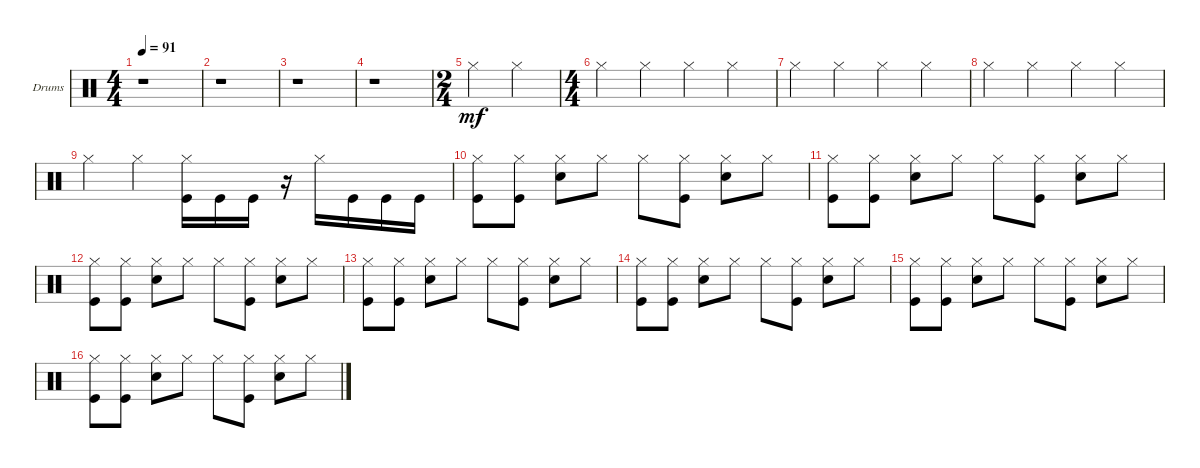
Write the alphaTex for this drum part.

\defaultSystemsLayout 4
\bracketExtendMode groupsimilarinstruments
\firstSystemTrackNameOrientation horizontal
\otherSystemsTrackNameOrientation horizontal
\track ("Drumkit" "Drums") {instrument percussion}
\staff {score}
\articulation defaults
\ts (4 4)
\tempo 91
\clef neutral
\scale
0.474178
\ks c
r.1{dy mf} |
\scale
0.262911 r.1 |
\scale
0.262911 r.1 |
\scale
0.217054 r.1 |
\ts (2 4)
\scale
0.391473 "Hi-Hat (closed)".4 "Hi-Hat (closed)".4 |
\ts (4 4)
\scale
0.391473 "Hi-Hat (closed)".4 "Hi-Hat (closed)".4 "Hi-Hat (closed)".4 "Hi-Hat (closed)".4 |
\scale
0.333333 "Hi-Hat (closed)".4 "Hi-Hat (closed)".4 "Hi-Hat (closed)".4 "Hi-Hat (closed)".4 |
\scale
0.333333 "Hi-Hat (closed)".4 "Hi-Hat (closed)".4 "Hi-Hat (closed)".4 "Hi-Hat (closed)".4 |
\scale
0.333333 "Hi-Hat (closed)".4 "Hi-Hat (closed)".4 ("Hi-Hat (closed)" "Kick (hit)").16 "Kick (hit)".16 "Kick (hit)".16 r.16 "Hi-Hat (closed)".16 "Kick (hit)".16 "Kick (hit)".16 "Kick (hit)".16 |
("Kick (hit)" "Hi-Hat (closed)").8 ("Kick (hit)" "Hi-Hat (closed)").8 ("Hi-Hat (closed)" "Snare (hit) 2").8 "Hi-Hat (closed)".8 "Hi-Hat (closed)".8 ("Kick (hit)" "Hi-Hat (closed)").8 ("Hi-Hat (closed)" "Snare (hit) 2").8 "Hi-Hat (closed)".8 |
("Kick (hit)" "Hi-Hat (closed)").8 ("Kick (hit)" "Hi-Hat (closed)").8 ("Hi-Hat (closed)" "Snare (hit) 2").8 "Hi-Hat (closed)".8 "Hi-Hat (closed)".8 ("Kick (hit)" "Hi-Hat (closed)").8 ("Hi-Hat (closed)" "Snare (hit) 2").8 "Hi-Hat (closed)".8 |
("Kick (hit)" "Hi-Hat (closed)").8 ("Kick (hit)" "Hi-Hat (closed)").8 ("Hi-Hat (closed)" "Snare (hit) 2").8 "Hi-Hat (closed)".8 "Hi-Hat (closed)".8 ("Kick (hit)" "Hi-Hat (closed)").8 ("Hi-Hat (closed)" "Snare (hit) 2").8 "Hi-Hat (closed)".8 |
("Kick (hit)" "Hi-Hat (closed)").8 ("Kick (hit)" "Hi-Hat (closed)").8 ("Hi-Hat (closed)" "Snare (hit) 2").8 "Hi-Hat (closed)".8 "Hi-Hat (closed)".8 ("Kick (hit)" "Hi-Hat (closed)").8 ("Hi-Hat (closed)" "Snare (hit) 2").8 "Hi-Hat (closed)".8 |
("Kick (hit)" "Hi-Hat (closed)").8 ("Kick (hit)" "Hi-Hat (closed)").8 ("Hi-Hat (closed)" "Snare (hit) 2").8 "Hi-Hat (closed)".8 "Hi-Hat (closed)".8 ("Kick (hit)" "Hi-Hat (closed)").8 ("Hi-Hat (closed)" "Snare (hit) 2").8 "Hi-Hat (closed)".8 |
("Kick (hit)" "Hi-Hat (closed)").8 ("Kick (hit)" "Hi-Hat (closed)").8 ("Hi-Hat (closed)" "Snare (hit) 2").8 "Hi-Hat (closed)".8 "Hi-Hat (closed)".8 ("Kick (hit)" "Hi-Hat (closed)").8 ("Hi-Hat (closed)" "Snare (hit) 2").8 "Hi-Hat (closed)".8 |
("Kick (hit)" "Hi-Hat (closed)").8 ("Kick (hit)" "Hi-Hat (closed)").8 ("Hi-Hat (closed)" "Snare (hit) 2").8 "Hi-Hat (closed)".8 "Hi-Hat (closed)".8 ("Kick (hit)" "Hi-Hat (closed)").8 ("Hi-Hat (closed)" "Snare (hit) 2").8 "Hi-Hat (closed)".8
